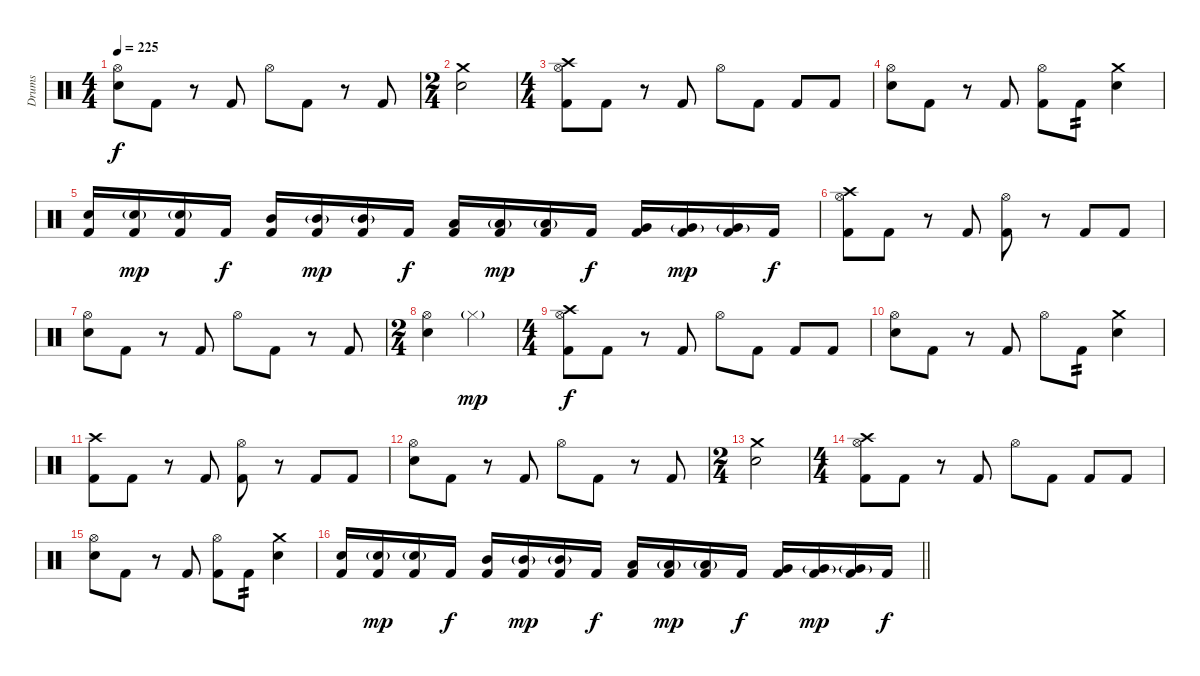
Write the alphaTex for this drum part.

\track ("Drums" "Drums") {instrument percussion}
\staff {score}
\articulation defaults
\ts (4 4)
\tempo 225
\clef neutral
\ks c
("Hi-Hat (open)" "Electric Snare (hit)").8{dy f} "Kick (hit) 2".8 r.8 "Kick (hit) 2".8 "Hi-Hat (open)".8 "Kick (hit) 2".8 r.8 "Kick (hit) 2".8 |
\ts (2 4)
("Crash medium (hit)" "Electric Snare (hit)").2 |
\ts (4 4)
("Crash high (hit)" "Hi-Hat (open)" "Kick (hit) 2").8 "Kick (hit) 2".8 r.8 "Kick (hit) 2".8 "Hi-Hat (open)".8 "Kick (hit) 2".8 "Kick (hit) 2".8 "Kick (hit) 2".8 |
("Hi-Hat (open)" "Electric Snare (hit)").8 "Kick (hit) 2".8 r.8 "Kick (hit) 2".8 ("Hi-Hat (open)" "Kick (hit) 2").8 "Kick (hit) 2".8{tp 2} ("Crash medium (hit)" "Electric Snare (hit)").4 |
("Electric Snare (hit)" "Kick (hit) 2").16 ("Electric Snare (hit)"{g} "Kick (hit) 2").16{dy mp} ("Electric Snare (hit)"{g} "Kick (hit) 2").16 "Kick (hit) 2".16{dy f} ("Mid Tom (hit)" "Kick (hit) 2").16 ("Mid Tom (hit)"{g} "Kick (hit) 2").16{dy mp} ("Mid Tom (hit)"{g} "Kick (hit) 2").16 "Kick (hit) 2".16{dy f} ("Low Tom (hit)" "Kick (hit) 2").16 ("Low Tom (hit)"{g} "Kick (hit) 2").16{dy mp} ("Low Tom (hit)"{g} "Kick (hit) 2").16 "Kick (hit) 2".16{dy f} ("Very Low Tom (hit)" "Kick (hit) 2").16 ("Very Low Tom (hit)"{g} "Kick (hit) 2").16{dy mp} ("Very Low Tom (hit)"{g} "Kick (hit) 2").16 "Kick (hit) 2".16{dy f} |
("Crash high (hit)" "Hi-Hat (open)" "Kick (hit) 2").8 "Kick (hit) 2".8 r.8 "Kick (hit) 2".8 ("Hi-Hat (open)" "Kick (hit) 2").8 r.8 "Kick (hit) 2".8 "Kick (hit) 2".8 |
("Hi-Hat (open)" "Electric Snare (hit)").8 "Kick (hit) 2".8 r.8 "Kick (hit) 2".8 "Hi-Hat (open)".8 "Kick (hit) 2".8 r.8 "Kick (hit) 2".8 |
\ts (2 4)
("Hi-Hat (open)" "Electric Snare (hit)").4 "Hi-Hat (closed)"{g}.4{dy mp} |
\ts (4 4)
("Crash high (hit)" "Hi-Hat (open)" "Kick (hit) 2").8{dy f} "Kick (hit) 2".8 r.8 "Kick (hit) 2".8 "Hi-Hat (open)".8 "Kick (hit) 2".8 "Kick (hit) 2".8 "Kick (hit) 2".8 |
("Hi-Hat (open)" "Electric Snare (hit)").8 "Kick (hit) 2".8 r.8 "Kick (hit) 2".8 "Hi-Hat (open)".8 "Kick (hit) 2".8{tp 2} ("Crash medium (hit)" "Electric Snare (hit)").4 |
("Crash high (hit)" "Kick (hit) 2").8 "Kick (hit) 2".8 r.8 "Kick (hit) 2".8 ("Hi-Hat (open)" "Kick (hit) 2").8 r.8 "Kick (hit) 2".8 "Kick (hit) 2".8 |
("Hi-Hat (open)" "Electric Snare (hit)").8 "Kick (hit) 2".8 r.8 "Kick (hit) 2".8 "Hi-Hat (open)".8 "Kick (hit) 2".8 r.8 "Kick (hit) 2".8 |
\ts (2 4)
("Crash medium (hit)" "Electric Snare (hit)").2 |
\ts (4 4)
("Crash high (hit)" "Hi-Hat (open)" "Kick (hit) 2").8 "Kick (hit) 2".8 r.8 "Kick (hit) 2".8 "Hi-Hat (open)".8 "Kick (hit) 2".8 "Kick (hit) 2".8 "Kick (hit) 2".8 |
("Hi-Hat (open)" "Electric Snare (hit)").8 "Kick (hit) 2".8 r.8 "Kick (hit) 2".8 ("Hi-Hat (open)" "Kick (hit) 2").8 "Kick (hit) 2".8{tp 2} ("Crash medium (hit)" "Electric Snare (hit)").4 |
\barLineRight lightlight
("Electric Snare (hit)" "Kick (hit) 2").16 ("Electric Snare (hit)"{g} "Kick (hit) 2").16{dy mp} ("Electric Snare (hit)"{g} "Kick (hit) 2").16 "Kick (hit) 2".16{dy f} ("Mid Tom (hit)" "Kick (hit) 2").16 ("Mid Tom (hit)"{g} "Kick (hit) 2").16{dy mp} ("Mid Tom (hit)"{g} "Kick (hit) 2").16 "Kick (hit) 2".16{dy f} ("Low Tom (hit)" "Kick (hit) 2").16 ("Low Tom (hit)"{g} "Kick (hit) 2").16{dy mp} ("Low Tom (hit)"{g} "Kick (hit) 2").16 "Kick (hit) 2".16{dy f} ("Very Low Tom (hit)" "Kick (hit) 2").16 ("Very Low Tom (hit)"{g} "Kick (hit) 2").16{dy mp} ("Very Low Tom (hit)"{g} "Kick (hit) 2").16 "Kick (hit) 2".16{dy f}
